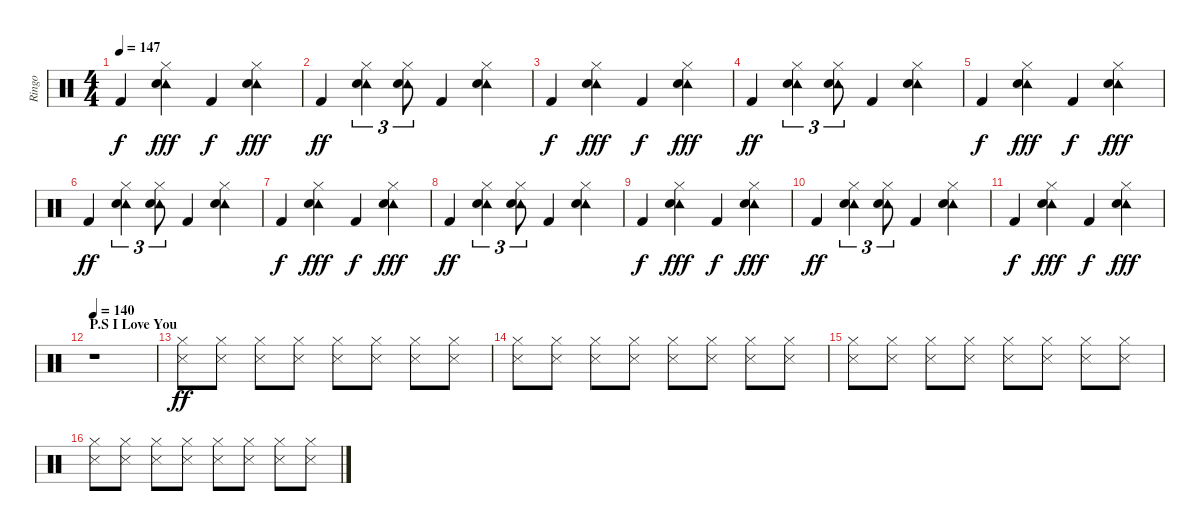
\track ("Ringo" "Ringo") {instrument percussion}
\staff {score}
\articulation defaults
\ts (4 4)
\tempo 147
\clef neutral
\ks c "Kick (hit) 2".4{dy f}
("Tambourine (hit)" "Hi-Hat (closed)" "Snare (hit) 2").4{dy fff} "Kick (hit) 2".4{dy f} ("Tambourine (hit)" "Hi-Hat (closed)" "Snare (hit) 2").4{dy fff} |
"Kick (hit) 2".4{dy ff} ("Tambourine (hit)" "Hi-Hat (closed)" "Snare (hit) 2").4{tu (3 2)} ("Tambourine (hit)" "Hi-Hat (closed)" "Snare (hit) 2").8{tu (3 2)} "Kick (hit) 2".4 ("Tambourine (hit)" "Hi-Hat (closed)" "Snare (hit) 2").4 |
"Kick (hit) 2".4{dy f} ("Tambourine (hit)" "Hi-Hat (closed)" "Snare (hit) 2").4{dy fff} "Kick (hit) 2".4{dy f} ("Tambourine (hit)" "Hi-Hat (closed)" "Snare (hit) 2").4{dy fff} |
"Kick (hit) 2".4{dy ff} ("Tambourine (hit)" "Hi-Hat (closed)" "Snare (hit) 2").4{tu (3 2)} ("Tambourine (hit)" "Hi-Hat (closed)" "Snare (hit) 2").8{tu (3 2)} "Kick (hit) 2".4 ("Tambourine (hit)" "Hi-Hat (closed)" "Snare (hit) 2").4 |
"Kick (hit) 2".4{dy f} ("Tambourine (hit)" "Hi-Hat (closed)" "Snare (hit) 2").4{dy fff} "Kick (hit) 2".4{dy f} ("Tambourine (hit)" "Hi-Hat (closed)" "Snare (hit) 2").4{dy fff} |
"Kick (hit) 2".4{dy ff} ("Tambourine (hit)" "Hi-Hat (closed)" "Snare (hit) 2").4{tu (3 2)} ("Tambourine (hit)" "Hi-Hat (closed)" "Snare (hit) 2").8{tu (3 2)} "Kick (hit) 2".4 ("Tambourine (hit)" "Hi-Hat (closed)" "Snare (hit) 2").4 |
"Kick (hit) 2".4{dy f} ("Tambourine (hit)" "Hi-Hat (closed)" "Snare (hit) 2").4{dy fff} "Kick (hit) 2".4{dy f} ("Tambourine (hit)" "Hi-Hat (closed)" "Snare (hit) 2").4{dy fff} |
"Kick (hit) 2".4{dy ff} ("Tambourine (hit)" "Hi-Hat (closed)" "Snare (hit) 2").4{tu (3 2)} ("Tambourine (hit)" "Hi-Hat (closed)" "Snare (hit) 2").8{tu (3 2)} "Kick (hit) 2".4 ("Tambourine (hit)" "Hi-Hat (closed)" "Snare (hit) 2").4 |
"Kick (hit) 2".4{dy f} ("Tambourine (hit)" "Hi-Hat (closed)" "Snare (hit) 2").4{dy fff} "Kick (hit) 2".4{dy f} ("Tambourine (hit)" "Hi-Hat (closed)" "Snare (hit) 2").4{dy fff} |
"Kick (hit) 2".4{dy ff} ("Tambourine (hit)" "Hi-Hat (closed)" "Snare (hit) 2").4{tu (3 2)} ("Tambourine (hit)" "Hi-Hat (closed)" "Snare (hit) 2").8{tu (3 2)} "Kick (hit) 2".4 ("Tambourine (hit)" "Hi-Hat (closed)" "Snare (hit) 2").4 |
"Kick (hit) 2".4{dy f} ("Tambourine (hit)" "Hi-Hat (closed)" "Snare (hit) 2").4{dy fff} "Kick (hit) 2".4{dy f} ("Tambourine (hit)" "Hi-Hat (closed)" "Snare (hit) 2").4{dy fff} |
\section ("" "P.S I Love You")
\tempo 140
r.1{volume 14 balance 7} |
("Hi-Hat (closed)" "Snare (side stick) 3").8{dy ff} ("Hi-Hat (closed)" "Snare (side stick) 3").8 ("Hi-Hat (closed)" "Snare (side stick) 3").8 ("Hi-Hat (closed)" "Snare (side stick) 3").8 ("Hi-Hat (closed)" "Snare (side stick) 3").8 ("Hi-Hat (closed)" "Snare (side stick) 3").8 ("Hi-Hat (closed)" "Snare (side stick) 3").8 ("Hi-Hat (closed)" "Snare (side stick) 3").8 |
("Hi-Hat (closed)" "Snare (side stick) 3").8 ("Hi-Hat (closed)" "Snare (side stick) 3").8 ("Hi-Hat (closed)" "Snare (side stick) 3").8 ("Hi-Hat (closed)" "Snare (side stick) 3").8 ("Hi-Hat (closed)" "Snare (side stick) 3").8 ("Hi-Hat (closed)" "Snare (side stick) 3").8 ("Hi-Hat (closed)" "Snare (side stick) 3").8 ("Hi-Hat (closed)" "Snare (side stick) 3").8 |
("Hi-Hat (closed)" "Snare (side stick) 3").8 ("Hi-Hat (closed)" "Snare (side stick) 3").8 ("Hi-Hat (closed)" "Snare (side stick) 3").8 ("Hi-Hat (closed)" "Snare (side stick) 3").8 ("Hi-Hat (closed)" "Snare (side stick) 3").8 ("Hi-Hat (closed)" "Snare (side stick) 3").8 ("Hi-Hat (closed)" "Snare (side stick) 3").8 ("Hi-Hat (closed)" "Snare (side stick) 3").8 |
("Hi-Hat (closed)" "Snare (side stick) 3").8 ("Hi-Hat (closed)" "Snare (side stick) 3").8 ("Hi-Hat (closed)" "Snare (side stick) 3").8 ("Hi-Hat (closed)" "Snare (side stick) 3").8 ("Hi-Hat (closed)" "Snare (side stick) 3").8 ("Hi-Hat (closed)" "Snare (side stick) 3").8 ("Hi-Hat (closed)" "Snare (side stick) 3").8 ("Hi-Hat (closed)" "Snare (side stick) 3").8
